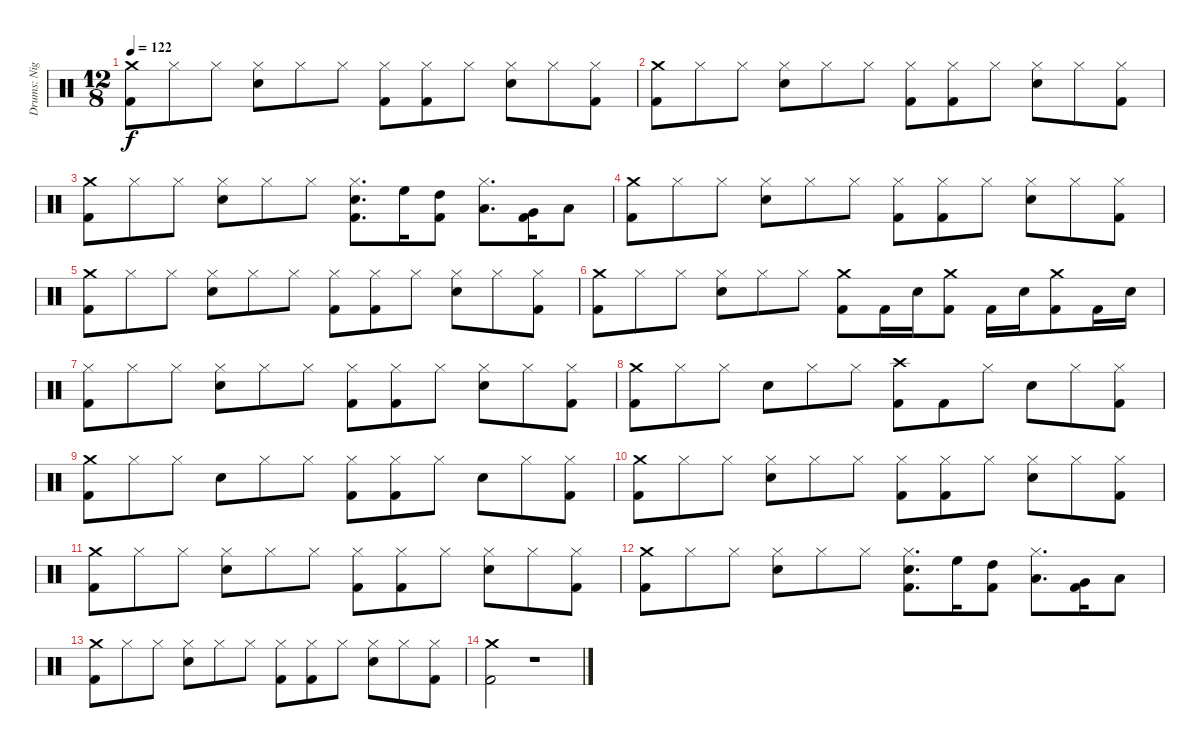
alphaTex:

\track ("Drums: Nigel Ollson" "Drums: Nig") {instrument percussion}
\staff {score}
\articulation defaults
\ts (12 8)
\tempo 122
\clef neutral
\ks c
("Crash medium (hit)" "Kick (hit) 2").8{dy f} "Hi-Hat (closed)".8 "Hi-Hat (closed)".8 ("Hi-Hat (closed)" "Snare (hit) 2").8 "Hi-Hat (closed)".8 "Hi-Hat (closed)".8 ("Hi-Hat (closed)" "Kick (hit) 2").8 ("Hi-Hat (closed)" "Kick (hit) 2").8 "Hi-Hat (closed)".8 ("Hi-Hat (closed)" "Snare (hit) 2").8 "Hi-Hat (closed)".8 ("Hi-Hat (closed)" "Kick (hit) 2").8 |
("Crash medium (hit)" "Kick (hit) 2").8 "Hi-Hat (closed)".8 "Hi-Hat (closed)".8 ("Hi-Hat (closed)" "Snare (hit) 2").8 "Hi-Hat (closed)".8 "Hi-Hat (closed)".8 ("Hi-Hat (closed)" "Kick (hit) 2").8 ("Hi-Hat (closed)" "Kick (hit) 2").8 "Hi-Hat (closed)".8 ("Hi-Hat (closed)" "Snare (hit) 2").8 "Hi-Hat (closed)".8 ("Hi-Hat (closed)" "Kick (hit) 2").8 |
("Crash medium (hit)" "Kick (hit) 2").8 "Hi-Hat (closed)".8 "Hi-Hat (closed)".8 ("Hi-Hat (closed)" "Snare (hit) 2").8 "Hi-Hat (closed)".8 "Hi-Hat (closed)".8 ("Hi-Hat (closed)" "Snare (hit) 2" "Kick (hit) 2").8{d} "High Floor Tom (hit)".16 ("High Tom (hit)" "Kick (hit) 2").8 ("Hi-Hat (closed)" "Low Tom (hit)").8{d} ("Very Low Tom (hit)" "Kick (hit) 2").16 "Low Floor Tom (hit)".8 |
("Crash medium (hit)" "Kick (hit) 2").8 "Hi-Hat (closed)".8 "Hi-Hat (closed)".8 ("Hi-Hat (closed)" "Snare (hit) 2").8 "Hi-Hat (closed)".8 "Hi-Hat (closed)".8 ("Hi-Hat (closed)" "Kick (hit) 2").8 ("Hi-Hat (closed)" "Kick (hit) 2").8 "Hi-Hat (closed)".8 ("Hi-Hat (closed)" "Snare (hit) 2").8 "Hi-Hat (closed)".8 ("Hi-Hat (closed)" "Kick (hit) 2").8 |
("Crash medium (hit)" "Kick (hit) 2").8 "Hi-Hat (closed)".8 "Hi-Hat (closed)".8 ("Hi-Hat (closed)" "Snare (hit) 2").8 "Hi-Hat (closed)".8 "Hi-Hat (closed)".8 ("Hi-Hat (closed)" "Kick (hit) 2").8 ("Hi-Hat (closed)" "Kick (hit) 2").8 "Hi-Hat (closed)".8 ("Hi-Hat (closed)" "Snare (hit) 2").8 "Hi-Hat (closed)".8 ("Hi-Hat (closed)" "Kick (hit) 2").8 |
("Crash medium (hit)" "Kick (hit) 2").8 "Hi-Hat (closed)".8 "Hi-Hat (closed)".8 ("Hi-Hat (closed)" "Snare (hit) 2").8 "Hi-Hat (closed)".8 "Hi-Hat (closed)".8 ("Crash medium (hit)" "Kick (hit) 2").8 "Kick (hit) 2".16 "Snare (hit) 2".16 ("Crash medium (hit)" "Kick (hit) 2").8 "Kick (hit) 2".16 "Snare (hit) 2".16 ("Crash medium (hit)" "Kick (hit) 2").8 "Kick (hit) 2".16 "Snare (hit) 2".16 |
("Hi-Hat (closed)" "Kick (hit) 2").8 "Hi-Hat (closed)".8 "Hi-Hat (closed)".8 ("Hi-Hat (closed)" "Snare (hit) 2").8 "Hi-Hat (closed)".8 "Hi-Hat (closed)".8 ("Hi-Hat (closed)" "Kick (hit) 2").8 ("Hi-Hat (closed)" "Kick (hit) 2").8 "Hi-Hat (closed)".8 ("Hi-Hat (closed)" "Snare (hit) 2").8 "Hi-Hat (closed)".8 ("Hi-Hat (closed)" "Kick (hit) 2").8 |
("Crash medium (hit)" "Kick (hit) 2").8 "Hi-Hat (closed)".8 "Hi-Hat (closed)".8 "Snare (hit) 2".8 "Hi-Hat (closed)".8 "Hi-Hat (closed)".8 ("Crash high (hit)" "Kick (hit) 2").8 "Kick (hit) 2".8 "Hi-Hat (closed)".8 "Snare (hit) 2".8 "Hi-Hat (closed)".8 ("Hi-Hat (closed)" "Kick (hit) 2").8 |
("Crash medium (hit)" "Kick (hit) 2").8 "Hi-Hat (closed)".8 "Hi-Hat (closed)".8 "Snare (hit) 2".8 "Hi-Hat (closed)".8 "Hi-Hat (closed)".8 ("Hi-Hat (closed)" "Kick (hit) 2").8 ("Hi-Hat (closed)" "Kick (hit) 2").8 "Hi-Hat (closed)".8 "Snare (hit) 2".8 "Hi-Hat (closed)".8 ("Hi-Hat (closed)" "Kick (hit) 2").8 |
("Crash medium (hit)" "Kick (hit) 2").8 "Hi-Hat (closed)".8 "Hi-Hat (closed)".8 ("Hi-Hat (closed)" "Snare (hit) 2").8 "Hi-Hat (closed)".8 "Hi-Hat (closed)".8 ("Hi-Hat (closed)" "Kick (hit) 2").8 ("Hi-Hat (closed)" "Kick (hit) 2").8 "Hi-Hat (closed)".8 ("Hi-Hat (closed)" "Snare (hit) 2").8 "Hi-Hat (closed)".8 ("Hi-Hat (closed)" "Kick (hit) 2").8 |
("Crash medium (hit)" "Kick (hit) 2").8 "Hi-Hat (closed)".8 "Hi-Hat (closed)".8 ("Hi-Hat (closed)" "Snare (hit) 2").8 "Hi-Hat (closed)".8 "Hi-Hat (closed)".8 ("Hi-Hat (closed)" "Kick (hit) 2").8 ("Hi-Hat (closed)" "Kick (hit) 2").8 "Hi-Hat (closed)".8 ("Hi-Hat (closed)" "Snare (hit) 2").8 "Hi-Hat (closed)".8 ("Hi-Hat (closed)" "Kick (hit) 2").8 |
("Crash medium (hit)" "Kick (hit) 2").8 "Hi-Hat (closed)".8 "Hi-Hat (closed)".8 ("Hi-Hat (closed)" "Snare (hit) 2").8 "Hi-Hat (closed)".8 "Hi-Hat (closed)".8 ("Hi-Hat (closed)" "Snare (hit) 2" "Kick (hit) 2").8{d} "High Floor Tom (hit)".16 ("High Tom (hit)" "Kick (hit) 2").8 ("Hi-Hat (closed)" "Low Tom (hit)").8{d} ("Very Low Tom (hit)" "Kick (hit) 2").16 "Low Floor Tom (hit)".8 |
("Crash medium (hit)" "Kick (hit) 2").8 "Hi-Hat (closed)".8 "Hi-Hat (closed)".8 ("Hi-Hat (closed)" "Snare (hit) 2").8 "Hi-Hat (closed)".8 "Hi-Hat (closed)".8 ("Hi-Hat (closed)" "Kick (hit) 2").8 ("Hi-Hat (closed)" "Kick (hit) 2").8 "Hi-Hat (closed)".8 ("Hi-Hat (closed)" "Snare (hit) 2").8 "Hi-Hat (closed)".8 ("Hi-Hat (closed)" "Kick (hit) 2").8 |
("Crash medium (hit)" "Kick (hit) 2").2 r.1
